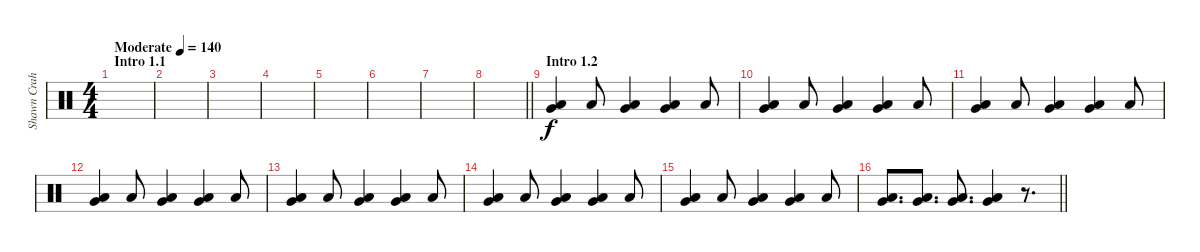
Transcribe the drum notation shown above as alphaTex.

\track ("Shawn Crahan" "Shawn Crah") {instrument percussion}
\staff {score}
\articulation defaults
\ts (4 4)
\section ("" "Intro 1.1")
\tempo (140 "Moderate")
\clef neutral
\ks c
|
|
|
|
|
|
|
\barLineRight lightlight
|
\section ("" "Intro 1.2")
("Very Low Tom (hit)" "Low Floor Tom (hit)").4 "Low Floor Tom (hit)".8 ("Very Low Tom (hit)" "Low Floor Tom (hit)").4 ("Very Low Tom (hit)" "Low Floor Tom (hit)").4 "Low Floor Tom (hit)".8 |
("Very Low Tom (hit)" "Low Floor Tom (hit)").4 "Low Floor Tom (hit)".8 ("Very Low Tom (hit)" "Low Floor Tom (hit)").4 ("Very Low Tom (hit)" "Low Floor Tom (hit)").4 "Low Floor Tom (hit)".8 |
("Very Low Tom (hit)" "Low Floor Tom (hit)").4 "Low Floor Tom (hit)".8 ("Very Low Tom (hit)" "Low Floor Tom (hit)").4 ("Very Low Tom (hit)" "Low Floor Tom (hit)").4 "Low Floor Tom (hit)".8 |
("Very Low Tom (hit)" "Low Floor Tom (hit)").4 "Low Floor Tom (hit)".8 ("Very Low Tom (hit)" "Low Floor Tom (hit)").4 ("Very Low Tom (hit)" "Low Floor Tom (hit)").4 "Low Floor Tom (hit)".8 |
("Very Low Tom (hit)" "Low Floor Tom (hit)").4 "Low Floor Tom (hit)".8 ("Very Low Tom (hit)" "Low Floor Tom (hit)").4 ("Very Low Tom (hit)" "Low Floor Tom (hit)").4 "Low Floor Tom (hit)".8 |
("Very Low Tom (hit)" "Low Floor Tom (hit)").4 "Low Floor Tom (hit)".8 ("Very Low Tom (hit)" "Low Floor Tom (hit)").4 ("Very Low Tom (hit)" "Low Floor Tom (hit)").4 "Low Floor Tom (hit)".8 |
("Very Low Tom (hit)" "Low Floor Tom (hit)").4 "Low Floor Tom (hit)".8 ("Very Low Tom (hit)" "Low Floor Tom (hit)").4 ("Very Low Tom (hit)" "Low Floor Tom (hit)").4 "Low Floor Tom (hit)".8 |
\barLineRight lightlight
("Very Low Tom (hit)" "Low Floor Tom (hit)").8{d} ("Very Low Tom (hit)" "Low Floor Tom (hit)").8{d} ("Very Low Tom (hit)" "Low Floor Tom (hit)").8{d} ("Very Low Tom (hit)" "Low Floor Tom (hit)").4 r.8{d}
